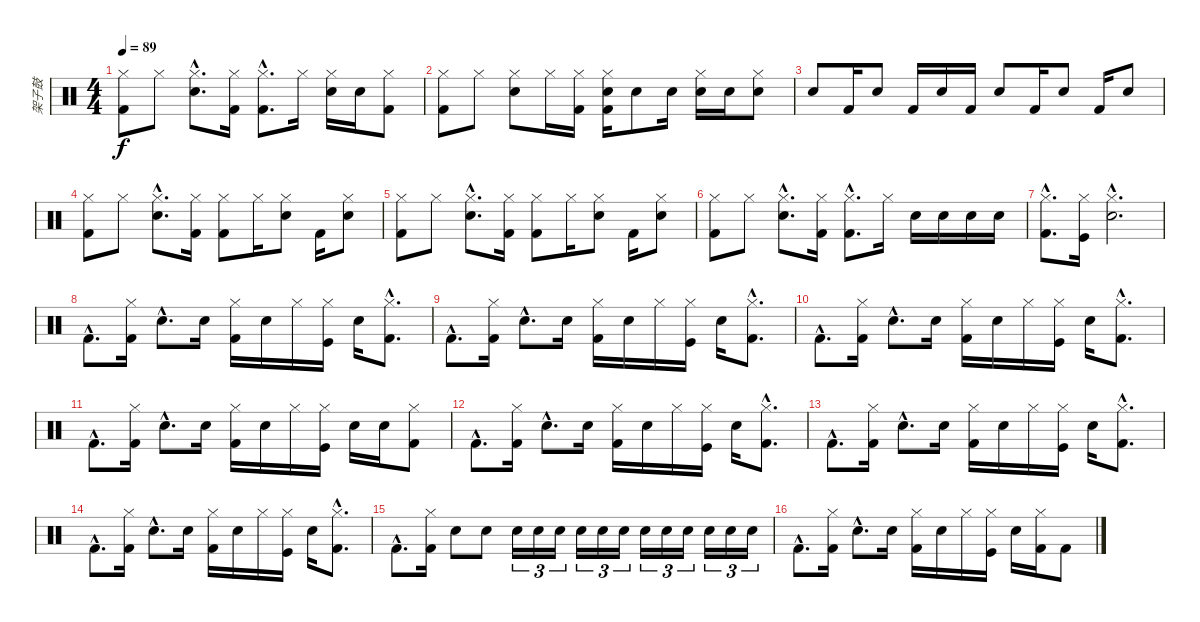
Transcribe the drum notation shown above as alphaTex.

\track ("架子鼓" "架子鼓") {instrument percussion}
\staff {score}
\articulation defaults
\ts (4 4)
\tempo 89
\clef neutral
\ks c
("Hi-Hat (closed)" "Kick (hit) 2").8{dy f} "Hi-Hat (closed)".8 ("Hi-Hat (closed)"{hac} "Snare (hit) 2"{hac}).8{d} ("Hi-Hat (closed)" "Kick (hit) 2").16 ("Hi-Hat (closed)"{hac} "Kick (hit) 2"{hac}).8{d} "Hi-Hat (closed)".16 ("Hi-Hat (closed)" "Snare (hit) 2").16 "Snare (hit) 2".16 ("Hi-Hat (closed)" "Kick (hit) 2").8 |
("Hi-Hat (closed)" "Kick (hit) 2").8 "Hi-Hat (closed)".8 ("Hi-Hat (closed)" "Snare (hit) 2").8 "Hi-Hat (closed)".16 ("Hi-Hat (closed)" "Kick (hit) 2").16 ("Hi-Hat (closed)" "Snare (hit) 2" "Kick (hit) 2").16 "Snare (hit) 2".8 "Snare (hit) 2".16 ("Hi-Hat (closed)" "Snare (hit) 2").16 "Snare (hit) 2".16 ("Hi-Hat (closed)" "Snare (hit) 2").8 |
"Snare (hit) 2".8 "Kick (hit) 2".16 "Snare (hit) 2".8 "Kick (hit) 2".16 "Snare (hit) 2".16 "Kick (hit) 2".16 "Snare (hit) 2".8 "Kick (hit) 2".16 "Snare (hit) 2".8 "Kick (hit) 2".16 "Snare (hit) 2".8 |
("Hi-Hat (closed)" "Kick (hit) 2").8 "Hi-Hat (closed)".8 ("Hi-Hat (closed)"{hac} "Snare (hit) 2"{hac}).8{d} ("Hi-Hat (closed)" "Kick (hit) 2").16 ("Hi-Hat (closed)" "Kick (hit) 2").8 "Hi-Hat (closed)".16 ("Hi-Hat (closed)" "Snare (hit) 2").8 "Kick (hit) 2".16 ("Hi-Hat (closed)" "Snare (hit) 2").8 |
("Hi-Hat (closed)" "Kick (hit) 2").8 "Hi-Hat (closed)".8 ("Hi-Hat (closed)"{hac} "Snare (hit) 2"{hac}).8{d} ("Hi-Hat (closed)" "Kick (hit) 2").16 ("Hi-Hat (closed)" "Kick (hit) 2").8 "Hi-Hat (closed)".16 ("Hi-Hat (closed)" "Snare (hit) 2").8 "Kick (hit) 2".16 ("Hi-Hat (closed)" "Snare (hit) 2").8 |
("Hi-Hat (closed)" "Kick (hit) 2").8 "Hi-Hat (closed)".8 ("Hi-Hat (closed)"{hac} "Snare (hit) 2"{hac}).8{d} ("Hi-Hat (closed)" "Kick (hit) 2").16 ("Hi-Hat (closed)"{hac} "Kick (hit) 2"{hac}).8{d} "Hi-Hat (closed)".16 "Snare (hit) 2".16 "Snare (hit) 2".16 "Snare (hit) 2".16 "Snare (hit) 2".16 |
("Hi-Hat (closed)"{hac} "Kick (hit) 2"{hac}).8{d} ("Kick (hit)" "Hi-Hat (closed)").16 ("Hi-Hat (closed)"{hac} "Snare (hit) 2"{hac}).2{d} |
"Kick (hit) 2"{hac}.8{d} ("Hi-Hat (closed)" "Kick (hit) 2").16 "Snare (hit) 2"{hac}.8{d} "Snare (hit) 2".16 ("Hi-Hat (closed)" "Kick (hit) 2").16 "Snare (hit) 2".16 "Hi-Hat (closed)".16 ("Hi-Hat (closed)" "Kick (hit)").16 "Snare (hit) 2".16 ("Hi-Hat (closed)"{hac} "Kick (hit) 2"{hac}).8{d} |
"Kick (hit) 2"{hac}.8{d} ("Hi-Hat (closed)" "Kick (hit) 2").16 "Snare (hit) 2"{hac}.8{d} "Snare (hit) 2".16 ("Hi-Hat (closed)" "Kick (hit) 2").16 "Snare (hit) 2".16 "Hi-Hat (closed)".16 ("Hi-Hat (closed)" "Kick (hit)").16 "Snare (hit) 2".16 ("Hi-Hat (closed)"{hac} "Kick (hit) 2"{hac}).8{d} |
"Kick (hit) 2"{hac}.8{d} ("Hi-Hat (closed)" "Kick (hit) 2").16 "Snare (hit) 2"{hac}.8{d} "Snare (hit) 2".16 ("Hi-Hat (closed)" "Kick (hit) 2").16 "Snare (hit) 2".16 "Hi-Hat (closed)".16 ("Hi-Hat (closed)" "Kick (hit)").16 "Snare (hit) 2".16 ("Hi-Hat (closed)"{hac} "Kick (hit) 2"{hac}).8{d} |
"Kick (hit) 2"{hac}.8{d} ("Hi-Hat (closed)" "Kick (hit) 2").16 "Snare (hit) 2"{hac}.8{d} "Snare (hit) 2".16 ("Hi-Hat (closed)" "Kick (hit) 2").16 "Snare (hit) 2".16 "Hi-Hat (closed)".16 ("Hi-Hat (closed)" "Kick (hit)").16 "Snare (hit) 2".16 "Snare (hit) 2".16 ("Hi-Hat (closed)" "Kick (hit) 2").8 |
"Kick (hit) 2"{hac}.8{d} ("Hi-Hat (closed)" "Kick (hit) 2").16 "Snare (hit) 2"{hac}.8{d} "Snare (hit) 2".16 ("Hi-Hat (closed)" "Kick (hit) 2").16 "Snare (hit) 2".16 "Hi-Hat (closed)".16 ("Hi-Hat (closed)" "Kick (hit)").16 "Snare (hit) 2".16 ("Hi-Hat (closed)"{hac} "Kick (hit) 2"{hac}).8{d} |
"Kick (hit) 2"{hac}.8{d} ("Hi-Hat (closed)" "Kick (hit) 2").16 "Snare (hit) 2"{hac}.8{d} "Snare (hit) 2".16 ("Hi-Hat (closed)" "Kick (hit) 2").16 "Snare (hit) 2".16 "Hi-Hat (closed)".16 ("Hi-Hat (closed)" "Kick (hit)").16 "Snare (hit) 2".16 ("Hi-Hat (closed)"{hac} "Kick (hit) 2"{hac}).8{d} |
"Kick (hit) 2"{hac}.8{d} ("Hi-Hat (closed)" "Kick (hit) 2").16 "Snare (hit) 2"{hac}.8{d} "Snare (hit) 2".16 ("Hi-Hat (closed)" "Kick (hit) 2").16 "Snare (hit) 2".16 "Hi-Hat (closed)".16 ("Hi-Hat (closed)" "Kick (hit)").16 "Snare (hit) 2".16 ("Hi-Hat (closed)"{hac} "Kick (hit) 2"{hac}).8{d} |
"Kick (hit) 2"{hac}.8{d} ("Hi-Hat (closed)" "Kick (hit) 2").16 "Snare (hit) 2".8 "Snare (hit) 2".8 "Snare (hit) 2".16{tu (3 2)} "Snare (hit) 2".16{tu (3 2)} "Snare (hit) 2".16{tu (3 2)} "Snare (hit) 2".16{tu (3 2)} "Snare (hit) 2".16{tu (3 2)} "Snare (hit) 2".16{tu (3 2)} "Snare (hit) 2".16{tu (3 2)} "Snare (hit) 2".16{tu (3 2)} "Snare (hit) 2".16{tu (3 2)} "Snare (hit) 2".16{tu (3 2)} "Snare (hit) 2".16{tu (3 2)} "Snare (hit) 2".16{tu (3 2)} |
"Kick (hit) 2"{hac}.8{d} ("Hi-Hat (closed)" "Kick (hit) 2").16 "Snare (hit) 2"{hac}.8{d} "Snare (hit) 2".16 ("Hi-Hat (closed)" "Kick (hit) 2").16 "Snare (hit) 2".16 "Hi-Hat (closed)".16 ("Hi-Hat (closed)" "Kick (hit)").16 "Snare (hit) 2".16 ("Hi-Hat (closed)" "Kick (hit) 2").16 "Kick (hit) 2".8
